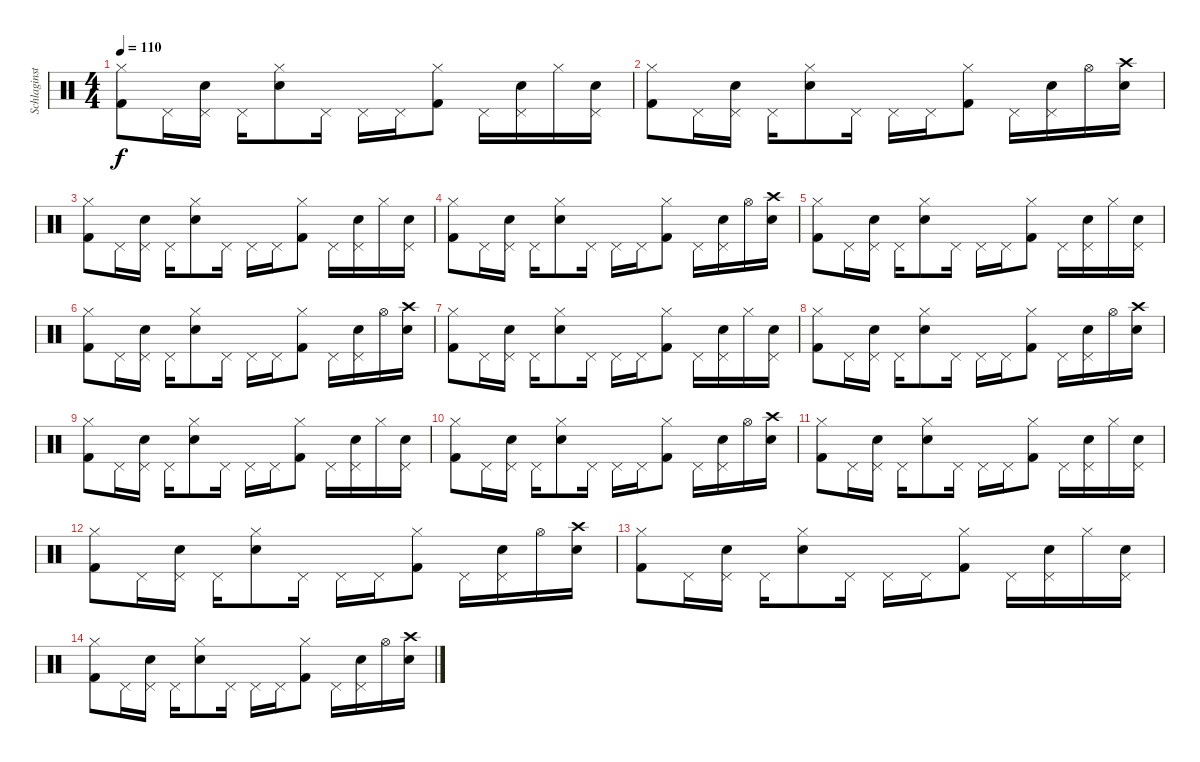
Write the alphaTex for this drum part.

\track ("Schlaginstrumente - Auswahl" "Schlaginst") {mute instrument percussion}
\staff {score}
\articulation defaults
\ts (4 4)
\tempo 110
\clef neutral
\ks c
("Hi-Hat (closed)" "Kick (hit) 2").8{dy f} "Pedal Hi-Hat (hit)".16 ("Pedal Hi-Hat (hit)" "Snare (hit) 2").16 "Pedal Hi-Hat (hit)".16 ("Hi-Hat (closed)" "Snare (hit) 2").8 "Pedal Hi-Hat (hit)".16 "Pedal Hi-Hat (hit)".16 "Pedal Hi-Hat (hit)".16 ("Hi-Hat (closed)" "Kick (hit) 2").8 "Pedal Hi-Hat (hit)".16 ("Pedal Hi-Hat (hit)" "Snare (hit) 2").16 "Hi-Hat (closed)".16 ("Pedal Hi-Hat (hit)" "Snare (hit) 2").16 |
("Hi-Hat (closed)" "Kick (hit) 2").8 "Pedal Hi-Hat (hit)".16 ("Pedal Hi-Hat (hit)" "Snare (hit) 2").16 "Pedal Hi-Hat (hit)".16 ("Hi-Hat (closed)" "Snare (hit) 2").8 "Pedal Hi-Hat (hit)".16 "Pedal Hi-Hat (hit)".16 "Pedal Hi-Hat (hit)".16 ("Hi-Hat (closed)" "Kick (hit) 2").8 "Pedal Hi-Hat (hit)".16 ("Pedal Hi-Hat (hit)" "Snare (hit) 2").16 "Hi-Hat (open)".16 ("Crash high (hit)" "Snare (hit) 2").16 |
("Hi-Hat (closed)" "Kick (hit) 2").8 "Pedal Hi-Hat (hit)".16 ("Pedal Hi-Hat (hit)" "Snare (hit) 2").16 "Pedal Hi-Hat (hit)".16 ("Hi-Hat (closed)" "Snare (hit) 2").8 "Pedal Hi-Hat (hit)".16 "Pedal Hi-Hat (hit)".16 "Pedal Hi-Hat (hit)".16 ("Hi-Hat (closed)" "Kick (hit) 2").8 "Pedal Hi-Hat (hit)".16 ("Pedal Hi-Hat (hit)" "Snare (hit) 2").16 "Hi-Hat (closed)".16 ("Pedal Hi-Hat (hit)" "Snare (hit) 2").16 |
("Hi-Hat (closed)" "Kick (hit) 2").8 "Pedal Hi-Hat (hit)".16 ("Pedal Hi-Hat (hit)" "Snare (hit) 2").16 "Pedal Hi-Hat (hit)".16 ("Hi-Hat (closed)" "Snare (hit) 2").8 "Pedal Hi-Hat (hit)".16 "Pedal Hi-Hat (hit)".16 "Pedal Hi-Hat (hit)".16 ("Hi-Hat (closed)" "Kick (hit) 2").8 "Pedal Hi-Hat (hit)".16 ("Pedal Hi-Hat (hit)" "Snare (hit) 2").16 "Hi-Hat (open)".16 ("Crash high (hit)" "Snare (hit) 2").16 |
("Hi-Hat (closed)" "Kick (hit) 2").8 "Pedal Hi-Hat (hit)".16 ("Pedal Hi-Hat (hit)" "Snare (hit) 2").16 "Pedal Hi-Hat (hit)".16 ("Hi-Hat (closed)" "Snare (hit) 2").8 "Pedal Hi-Hat (hit)".16 "Pedal Hi-Hat (hit)".16 "Pedal Hi-Hat (hit)".16 ("Hi-Hat (closed)" "Kick (hit) 2").8 "Pedal Hi-Hat (hit)".16 ("Pedal Hi-Hat (hit)" "Snare (hit) 2").16 "Hi-Hat (closed)".16 ("Pedal Hi-Hat (hit)" "Snare (hit) 2").16 |
("Hi-Hat (closed)" "Kick (hit) 2").8 "Pedal Hi-Hat (hit)".16 ("Pedal Hi-Hat (hit)" "Snare (hit) 2").16 "Pedal Hi-Hat (hit)".16 ("Hi-Hat (closed)" "Snare (hit) 2").8 "Pedal Hi-Hat (hit)".16 "Pedal Hi-Hat (hit)".16 "Pedal Hi-Hat (hit)".16 ("Hi-Hat (closed)" "Kick (hit) 2").8 "Pedal Hi-Hat (hit)".16 ("Pedal Hi-Hat (hit)" "Snare (hit) 2").16 "Hi-Hat (open)".16 ("Crash high (hit)" "Snare (hit) 2").16 |
("Hi-Hat (closed)" "Kick (hit) 2").8 "Pedal Hi-Hat (hit)".16 ("Pedal Hi-Hat (hit)" "Snare (hit) 2").16 "Pedal Hi-Hat (hit)".16 ("Hi-Hat (closed)" "Snare (hit) 2").8 "Pedal Hi-Hat (hit)".16 "Pedal Hi-Hat (hit)".16 "Pedal Hi-Hat (hit)".16 ("Hi-Hat (closed)" "Kick (hit) 2").8 "Pedal Hi-Hat (hit)".16 ("Pedal Hi-Hat (hit)" "Snare (hit) 2").16 "Hi-Hat (closed)".16 ("Pedal Hi-Hat (hit)" "Snare (hit) 2").16 |
("Hi-Hat (closed)" "Kick (hit) 2").8 "Pedal Hi-Hat (hit)".16 ("Pedal Hi-Hat (hit)" "Snare (hit) 2").16 "Pedal Hi-Hat (hit)".16 ("Hi-Hat (closed)" "Snare (hit) 2").8 "Pedal Hi-Hat (hit)".16 "Pedal Hi-Hat (hit)".16 "Pedal Hi-Hat (hit)".16 ("Hi-Hat (closed)" "Kick (hit) 2").8 "Pedal Hi-Hat (hit)".16 ("Pedal Hi-Hat (hit)" "Snare (hit) 2").16 "Hi-Hat (open)".16 ("Crash high (hit)" "Snare (hit) 2").16 |
("Hi-Hat (closed)" "Kick (hit) 2").8 "Pedal Hi-Hat (hit)".16 ("Pedal Hi-Hat (hit)" "Snare (hit) 2").16 "Pedal Hi-Hat (hit)".16 ("Hi-Hat (closed)" "Snare (hit) 2").8 "Pedal Hi-Hat (hit)".16 "Pedal Hi-Hat (hit)".16 "Pedal Hi-Hat (hit)".16 ("Hi-Hat (closed)" "Kick (hit) 2").8 "Pedal Hi-Hat (hit)".16 ("Pedal Hi-Hat (hit)" "Snare (hit) 2").16 "Hi-Hat (closed)".16 ("Pedal Hi-Hat (hit)" "Snare (hit) 2").16 |
("Hi-Hat (closed)" "Kick (hit) 2").8 "Pedal Hi-Hat (hit)".16 ("Pedal Hi-Hat (hit)" "Snare (hit) 2").16 "Pedal Hi-Hat (hit)".16 ("Hi-Hat (closed)" "Snare (hit) 2").8 "Pedal Hi-Hat (hit)".16 "Pedal Hi-Hat (hit)".16 "Pedal Hi-Hat (hit)".16 ("Hi-Hat (closed)" "Kick (hit) 2").8 "Pedal Hi-Hat (hit)".16 ("Pedal Hi-Hat (hit)" "Snare (hit) 2").16 "Hi-Hat (open)".16 ("Crash high (hit)" "Snare (hit) 2").16 |
("Hi-Hat (closed)" "Kick (hit) 2").8 "Pedal Hi-Hat (hit)".16 ("Pedal Hi-Hat (hit)" "Snare (hit) 2").16 "Pedal Hi-Hat (hit)".16 ("Hi-Hat (closed)" "Snare (hit) 2").8 "Pedal Hi-Hat (hit)".16 "Pedal Hi-Hat (hit)".16 "Pedal Hi-Hat (hit)".16 ("Hi-Hat (closed)" "Kick (hit) 2").8 "Pedal Hi-Hat (hit)".16 ("Pedal Hi-Hat (hit)" "Snare (hit) 2").16 "Hi-Hat (closed)".16 ("Pedal Hi-Hat (hit)" "Snare (hit) 2").16 |
("Hi-Hat (closed)" "Kick (hit) 2").8 "Pedal Hi-Hat (hit)".16 ("Pedal Hi-Hat (hit)" "Snare (hit) 2").16 "Pedal Hi-Hat (hit)".16 ("Hi-Hat (closed)" "Snare (hit) 2").8 "Pedal Hi-Hat (hit)".16 "Pedal Hi-Hat (hit)".16 "Pedal Hi-Hat (hit)".16 ("Hi-Hat (closed)" "Kick (hit) 2").8 "Pedal Hi-Hat (hit)".16 ("Pedal Hi-Hat (hit)" "Snare (hit) 2").16 "Hi-Hat (open)".16 ("Crash high (hit)" "Snare (hit) 2").16 |
("Hi-Hat (closed)" "Kick (hit) 2").8 "Pedal Hi-Hat (hit)".16 ("Pedal Hi-Hat (hit)" "Snare (hit) 2").16 "Pedal Hi-Hat (hit)".16 ("Hi-Hat (closed)" "Snare (hit) 2").8 "Pedal Hi-Hat (hit)".16 "Pedal Hi-Hat (hit)".16 "Pedal Hi-Hat (hit)".16 ("Hi-Hat (closed)" "Kick (hit) 2").8 "Pedal Hi-Hat (hit)".16 ("Pedal Hi-Hat (hit)" "Snare (hit) 2").16 "Hi-Hat (closed)".16 ("Pedal Hi-Hat (hit)" "Snare (hit) 2").16 |
("Hi-Hat (closed)" "Kick (hit) 2").8 "Pedal Hi-Hat (hit)".16 ("Pedal Hi-Hat (hit)" "Snare (hit) 2").16 "Pedal Hi-Hat (hit)".16 ("Hi-Hat (closed)" "Snare (hit) 2").8 "Pedal Hi-Hat (hit)".16 "Pedal Hi-Hat (hit)".16 "Pedal Hi-Hat (hit)".16 ("Hi-Hat (closed)" "Kick (hit) 2").8 "Pedal Hi-Hat (hit)".16 ("Pedal Hi-Hat (hit)" "Snare (hit) 2").16 "Hi-Hat (open)".16 ("Crash high (hit)" "Snare (hit) 2").16
